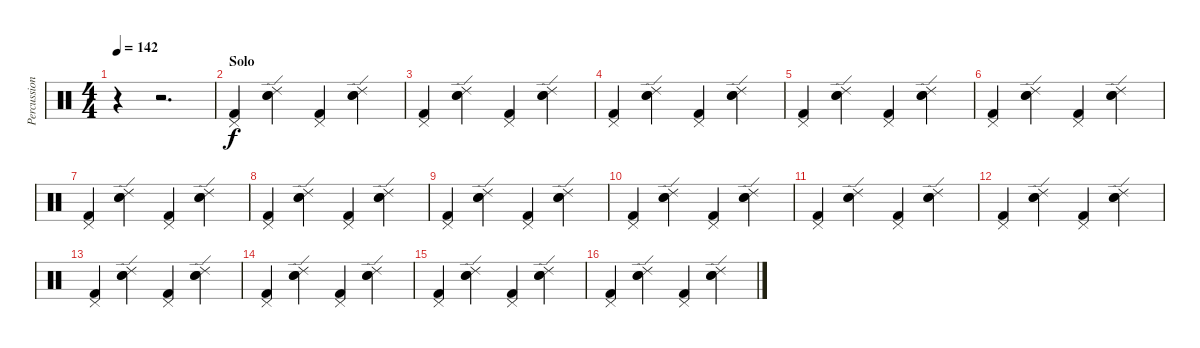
\track ("Percussions" "Percussion") {instrument percussion}
\staff {score}
\articulation defaults
\ts (4 4)
\tempo 142
\clef neutral
\ks c
r.4{dy f} r.2{d} |
\section ("" "Solo")
("Kick (hit) 2" "Pedal Hi-Hat (hit)").4 ("Snare (hit) 2" "Electric Snare (hit)" "Ride (edge) 2").4 ("Kick (hit) 2" "Pedal Hi-Hat (hit)").4 ("Snare (hit) 2" "Electric Snare (hit)" "Ride (edge) 2").4 |
("Kick (hit) 2" "Pedal Hi-Hat (hit)").4 ("Snare (hit) 2" "Electric Snare (hit)" "Ride (edge) 2").4 ("Kick (hit) 2" "Pedal Hi-Hat (hit)").4 ("Snare (hit) 2" "Electric Snare (hit)" "Ride (edge) 2").4 |
("Kick (hit) 2" "Pedal Hi-Hat (hit)").4 ("Snare (hit) 2" "Electric Snare (hit)" "Ride (edge) 2").4 ("Kick (hit) 2" "Pedal Hi-Hat (hit)").4 ("Snare (hit) 2" "Electric Snare (hit)" "Ride (edge) 2").4 |
("Kick (hit) 2" "Pedal Hi-Hat (hit)").4 ("Snare (hit) 2" "Electric Snare (hit)" "Ride (edge) 2").4 ("Kick (hit) 2" "Pedal Hi-Hat (hit)").4 ("Snare (hit) 2" "Electric Snare (hit)" "Ride (edge) 2").4 |
("Kick (hit) 2" "Pedal Hi-Hat (hit)").4 ("Snare (hit) 2" "Electric Snare (hit)" "Ride (edge) 2").4 ("Kick (hit) 2" "Pedal Hi-Hat (hit)").4 ("Snare (hit) 2" "Electric Snare (hit)" "Ride (edge) 2").4 |
("Kick (hit) 2" "Pedal Hi-Hat (hit)").4 ("Snare (hit) 2" "Electric Snare (hit)" "Ride (edge) 2").4 ("Kick (hit) 2" "Pedal Hi-Hat (hit)").4 ("Snare (hit) 2" "Electric Snare (hit)" "Ride (edge) 2").4 |
("Kick (hit) 2" "Pedal Hi-Hat (hit)").4 ("Snare (hit) 2" "Electric Snare (hit)" "Ride (edge) 2").4 ("Kick (hit) 2" "Pedal Hi-Hat (hit)").4 ("Snare (hit) 2" "Electric Snare (hit)" "Ride (edge) 2").4 |
("Kick (hit) 2" "Pedal Hi-Hat (hit)").4 ("Snare (hit) 2" "Electric Snare (hit)" "Ride (edge) 2").4 ("Kick (hit) 2" "Pedal Hi-Hat (hit)").4 ("Snare (hit) 2" "Electric Snare (hit)" "Ride (edge) 2").4 |
("Kick (hit) 2" "Pedal Hi-Hat (hit)").4 ("Snare (hit) 2" "Electric Snare (hit)" "Ride (edge) 2").4 ("Kick (hit) 2" "Pedal Hi-Hat (hit)").4 ("Snare (hit) 2" "Electric Snare (hit)" "Ride (edge) 2").4 |
("Kick (hit) 2" "Pedal Hi-Hat (hit)").4 ("Snare (hit) 2" "Electric Snare (hit)" "Ride (edge) 2").4 ("Kick (hit) 2" "Pedal Hi-Hat (hit)").4 ("Snare (hit) 2" "Electric Snare (hit)" "Ride (edge) 2").4 |
("Kick (hit) 2" "Pedal Hi-Hat (hit)").4 ("Snare (hit) 2" "Electric Snare (hit)" "Ride (edge) 2").4 ("Kick (hit) 2" "Pedal Hi-Hat (hit)").4 ("Snare (hit) 2" "Electric Snare (hit)" "Ride (edge) 2").4 |
("Kick (hit) 2" "Pedal Hi-Hat (hit)").4 ("Snare (hit) 2" "Electric Snare (hit)" "Ride (edge) 2").4 ("Kick (hit) 2" "Pedal Hi-Hat (hit)").4 ("Snare (hit) 2" "Electric Snare (hit)" "Ride (edge) 2").4 |
("Kick (hit) 2" "Pedal Hi-Hat (hit)").4 ("Snare (hit) 2" "Electric Snare (hit)" "Ride (edge) 2").4 ("Kick (hit) 2" "Pedal Hi-Hat (hit)").4 ("Snare (hit) 2" "Electric Snare (hit)" "Ride (edge) 2").4 |
("Kick (hit) 2" "Pedal Hi-Hat (hit)").4 ("Snare (hit) 2" "Electric Snare (hit)" "Ride (edge) 2").4 ("Kick (hit) 2" "Pedal Hi-Hat (hit)").4 ("Snare (hit) 2" "Electric Snare (hit)" "Ride (edge) 2").4 |
("Kick (hit) 2" "Pedal Hi-Hat (hit)").4 ("Snare (hit) 2" "Electric Snare (hit)" "Ride (edge) 2").4 ("Kick (hit) 2" "Pedal Hi-Hat (hit)").4 ("Snare (hit) 2" "Electric Snare (hit)" "Ride (edge) 2").4
